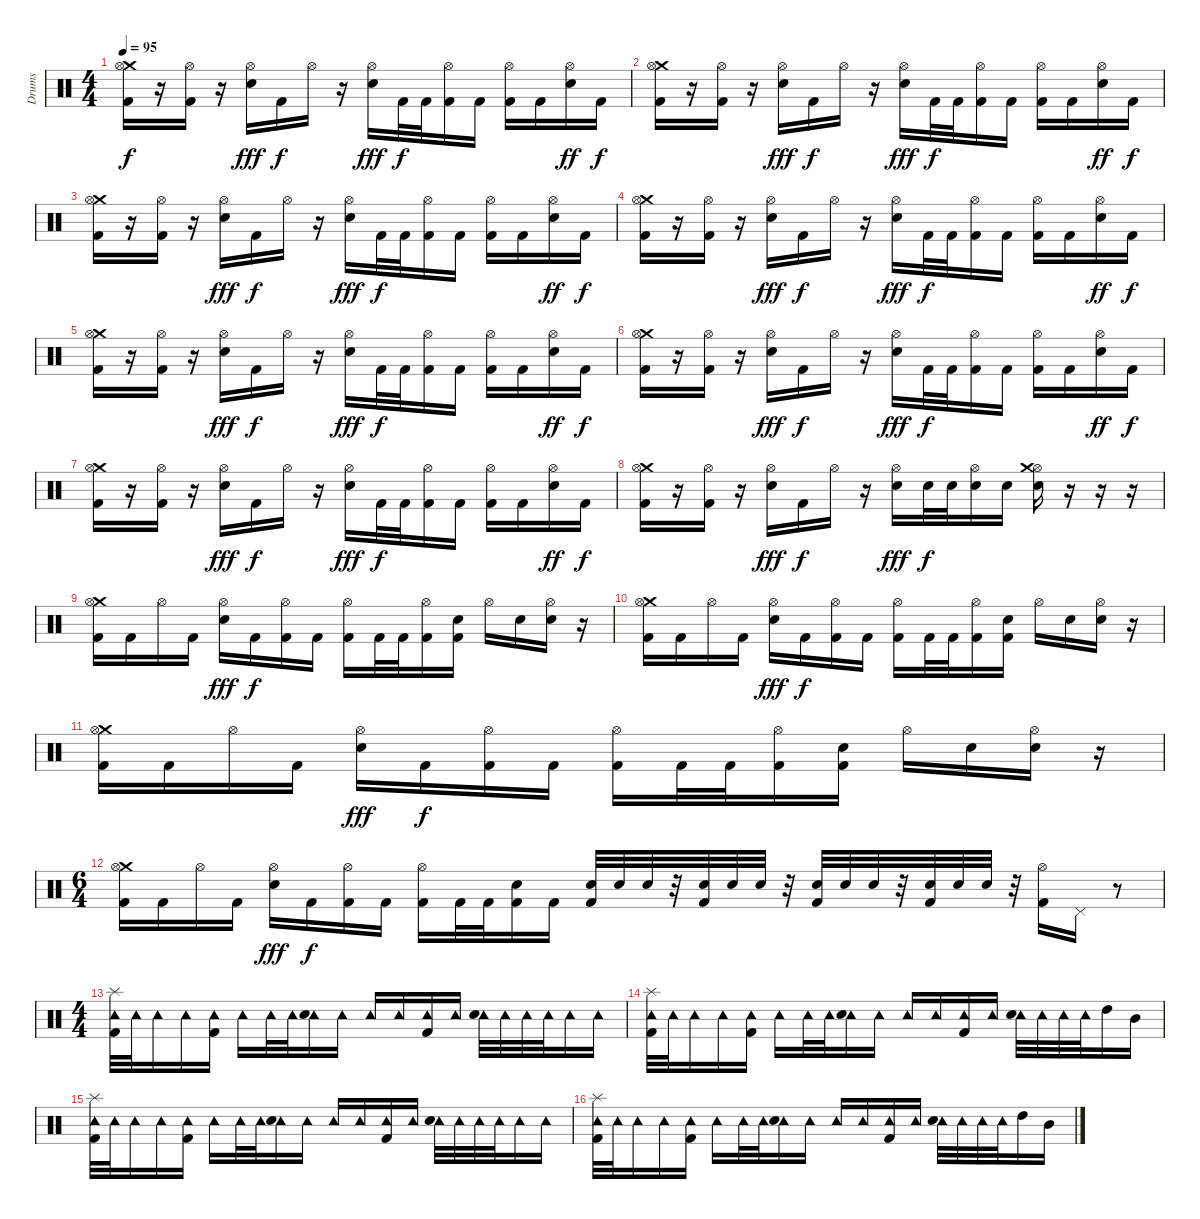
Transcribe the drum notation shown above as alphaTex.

\track ("Drums" "Drums") {instrument percussion}
\staff {score}
\articulation defaults
\ts (4 4)
\tempo 95
\clef neutral
\ks c
("Crash medium (hit)" "Hi-Hat (open)" "Kick (hit) 2").16{dy f} r.16 ("Hi-Hat (open)" "Kick (hit) 2").16 r.16 ("Hi-Hat (open)" "Electric Snare (hit)").16{dy fff} "Kick (hit) 2".16{dy f} "Hi-Hat (open)".16 r.16 ("Hi-Hat (open)" "Electric Snare (hit)").16{dy fff} "Kick (hit) 2".32{dy f} "Kick (hit) 2".32 ("Hi-Hat (open)" "Kick (hit) 2").16 "Kick (hit) 2".16 ("Hi-Hat (open)" "Kick (hit) 2").16 "Kick (hit) 2".16 ("Hi-Hat (open)" "Electric Snare (hit)").16{dy ff} "Kick (hit) 2".16{dy f} |
("Crash medium (hit)" "Hi-Hat (open)" "Kick (hit) 2").16 r.16 ("Hi-Hat (open)" "Kick (hit) 2").16 r.16 ("Hi-Hat (open)" "Electric Snare (hit)").16{dy fff} "Kick (hit) 2".16{dy f} "Hi-Hat (open)".16 r.16 ("Hi-Hat (open)" "Electric Snare (hit)").16{dy fff} "Kick (hit) 2".32{dy f} "Kick (hit) 2".32 ("Hi-Hat (open)" "Kick (hit) 2").16 "Kick (hit) 2".16 ("Hi-Hat (open)" "Kick (hit) 2").16 "Kick (hit) 2".16 ("Hi-Hat (open)" "Electric Snare (hit)").16{dy ff} "Kick (hit) 2".16{dy f} |
("Crash medium (hit)" "Hi-Hat (open)" "Kick (hit) 2").16 r.16 ("Hi-Hat (open)" "Kick (hit) 2").16 r.16 ("Hi-Hat (open)" "Electric Snare (hit)").16{dy fff} "Kick (hit) 2".16{dy f} "Hi-Hat (open)".16 r.16 ("Hi-Hat (open)" "Electric Snare (hit)").16{dy fff} "Kick (hit) 2".32{dy f} "Kick (hit) 2".32 ("Hi-Hat (open)" "Kick (hit) 2").16 "Kick (hit) 2".16 ("Hi-Hat (open)" "Kick (hit) 2").16 "Kick (hit) 2".16 ("Hi-Hat (open)" "Electric Snare (hit)").16{dy ff} "Kick (hit) 2".16{dy f} |
("Crash medium (hit)" "Hi-Hat (open)" "Kick (hit) 2").16 r.16 ("Hi-Hat (open)" "Kick (hit) 2").16 r.16 ("Hi-Hat (open)" "Electric Snare (hit)").16{dy fff} "Kick (hit) 2".16{dy f} "Hi-Hat (open)".16 r.16 ("Hi-Hat (open)" "Electric Snare (hit)").16{dy fff} "Kick (hit) 2".32{dy f} "Kick (hit) 2".32 ("Hi-Hat (open)" "Kick (hit) 2").16 "Kick (hit) 2".16 ("Hi-Hat (open)" "Kick (hit) 2").16 "Kick (hit) 2".16 ("Hi-Hat (open)" "Electric Snare (hit)").16{dy ff} "Kick (hit) 2".16{dy f} |
("Crash medium (hit)" "Hi-Hat (open)" "Kick (hit) 2").16 r.16 ("Hi-Hat (open)" "Kick (hit) 2").16 r.16 ("Hi-Hat (open)" "Electric Snare (hit)").16{dy fff} "Kick (hit) 2".16{dy f} "Hi-Hat (open)".16 r.16 ("Hi-Hat (open)" "Electric Snare (hit)").16{dy fff} "Kick (hit) 2".32{dy f} "Kick (hit) 2".32 ("Hi-Hat (open)" "Kick (hit) 2").16 "Kick (hit) 2".16 ("Hi-Hat (open)" "Kick (hit) 2").16 "Kick (hit) 2".16 ("Hi-Hat (open)" "Electric Snare (hit)").16{dy ff} "Kick (hit) 2".16{dy f} |
("Crash medium (hit)" "Hi-Hat (open)" "Kick (hit) 2").16 r.16 ("Hi-Hat (open)" "Kick (hit) 2").16 r.16 ("Hi-Hat (open)" "Electric Snare (hit)").16{dy fff} "Kick (hit) 2".16{dy f} "Hi-Hat (open)".16 r.16 ("Hi-Hat (open)" "Electric Snare (hit)").16{dy fff} "Kick (hit) 2".32{dy f} "Kick (hit) 2".32 ("Hi-Hat (open)" "Kick (hit) 2").16 "Kick (hit) 2".16 ("Hi-Hat (open)" "Kick (hit) 2").16 "Kick (hit) 2".16 ("Hi-Hat (open)" "Electric Snare (hit)").16{dy ff} "Kick (hit) 2".16{dy f} |
("Crash medium (hit)" "Hi-Hat (open)" "Kick (hit) 2").16 r.16 ("Hi-Hat (open)" "Kick (hit) 2").16 r.16 ("Hi-Hat (open)" "Electric Snare (hit)").16{dy fff} "Kick (hit) 2".16{dy f} "Hi-Hat (open)".16 r.16 ("Hi-Hat (open)" "Electric Snare (hit)").16{dy fff} "Kick (hit) 2".32{dy f} "Kick (hit) 2".32 ("Hi-Hat (open)" "Kick (hit) 2").16 "Kick (hit) 2".16 ("Hi-Hat (open)" "Kick (hit) 2").16 "Kick (hit) 2".16 ("Hi-Hat (open)" "Electric Snare (hit)").16{dy ff} "Kick (hit) 2".16{dy f} |
("Crash medium (hit)" "Hi-Hat (open)" "Kick (hit) 2").16 r.16 ("Hi-Hat (open)" "Kick (hit) 2").16 r.16 ("Hi-Hat (open)" "Electric Snare (hit)").16{dy fff} "Kick (hit) 2".16{dy f} "Hi-Hat (open)".16 r.16 ("Hi-Hat (open)" "Electric Snare (hit)").16{dy fff} "Electric Snare (hit)".32{dy f} "Electric Snare (hit)".32 ("Hi-Hat (open)" "Electric Snare (hit)").16 "Electric Snare (hit)".16 ("Hi-Hat (open)" "Crash medium (hit)" "Electric Snare (hit)").16 r.16 r.16 r.16 |
("Crash medium (hit)" "Hi-Hat (open)" "Kick (hit) 2").16 "Kick (hit) 2".16 "Hi-Hat (open)".16 "Kick (hit) 2".16 ("Hi-Hat (open)" "Electric Snare (hit)").16{dy fff} "Kick (hit) 2".16{dy f} ("Hi-Hat (open)" "Kick (hit) 2").16 "Kick (hit) 2".16 ("Hi-Hat (open)" "Kick (hit) 2").16 "Kick (hit) 2".32 "Kick (hit) 2".32 ("Hi-Hat (open)" "Kick (hit) 2").16 ("Electric Snare (hit)" "Kick (hit) 2").16 "Hi-Hat (open)".16 "Electric Snare (hit)".16 ("Hi-Hat (open)" "Electric Snare (hit)").16 r.16 |
("Crash medium (hit)" "Hi-Hat (open)" "Kick (hit) 2").16 "Kick (hit) 2".16 "Hi-Hat (open)".16 "Kick (hit) 2".16 ("Hi-Hat (open)" "Electric Snare (hit)").16{dy fff} "Kick (hit) 2".16{dy f} ("Hi-Hat (open)" "Kick (hit) 2").16 "Kick (hit) 2".16 ("Hi-Hat (open)" "Kick (hit) 2").16 "Kick (hit) 2".32 "Kick (hit) 2".32 ("Hi-Hat (open)" "Kick (hit) 2").16 ("Electric Snare (hit)" "Kick (hit) 2").16 "Hi-Hat (open)".16 "Electric Snare (hit)".16 ("Hi-Hat (open)" "Electric Snare (hit)").16 r.16 |
("Crash medium (hit)" "Hi-Hat (open)" "Kick (hit) 2").16 "Kick (hit) 2".16 "Hi-Hat (open)".16 "Kick (hit) 2".16 ("Hi-Hat (open)" "Electric Snare (hit)").16{dy fff} "Kick (hit) 2".16{dy f} ("Hi-Hat (open)" "Kick (hit) 2").16 "Kick (hit) 2".16 ("Hi-Hat (open)" "Kick (hit) 2").16 "Kick (hit) 2".32 "Kick (hit) 2".32 ("Hi-Hat (open)" "Kick (hit) 2").16 ("Electric Snare (hit)" "Kick (hit) 2").16 "Hi-Hat (open)".16 "Electric Snare (hit)".16 ("Hi-Hat (open)" "Electric Snare (hit)").16 r.16 |
\ts (6 4)
("Crash medium (hit)" "Hi-Hat (open)" "Kick (hit) 2").16 "Kick (hit) 2".16 "Hi-Hat (open)".16 "Kick (hit) 2".16 ("Hi-Hat (open)" "Electric Snare (hit)").16{dy fff} "Kick (hit) 2".16{dy f} ("Hi-Hat (open)" "Kick (hit) 2").16 "Kick (hit) 2".16 ("Hi-Hat (open)" "Kick (hit) 2").16 "Kick (hit) 2".32 "Kick (hit) 2".32 ("Electric Snare (hit)" "Kick (hit) 2").16 "Kick (hit) 2".16 ("Electric Snare (hit)" "Kick (hit) 2").32 "Electric Snare (hit)".32 "Electric Snare (hit)".32 r.32 ("Electric Snare (hit)" "Kick (hit) 2").32 "Electric Snare (hit)".32 "Electric Snare (hit)".32 r.32 ("Electric Snare (hit)" "Kick (hit) 2").32 "Electric Snare (hit)".32 "Electric Snare (hit)".32 r.32 ("Electric Snare (hit)" "Kick (hit) 2").32 "Electric Snare (hit)".32 "Electric Snare (hit)".32 r.32 ("Hi-Hat (open)" "Kick (hit) 2").16 "Pedal Hi-Hat (hit)".16 r.8 |
\ts (4 4)
("Tambourine (hit)" "Splash (hit)" "Kick (hit) 2").32 "Tambourine (hit)".32 "Tambourine (hit)".16 "Tambourine (hit)".16 ("Tambourine (hit)" "Kick (hit) 2").16 "Tambourine (hit)".16 "Tambourine (hit)".32 "Tambourine (hit)".32 ("Tambourine (hit)" "Electric Snare (hit)").16 "Tambourine (hit)".16 "Tambourine (hit)".16 "Tambourine (hit)".16 ("Tambourine (hit)" "Kick (hit) 2").16 "Tambourine (hit)".16 ("Tambourine (hit)" "Electric Snare (hit)").32 "Tambourine (hit)".32 "Tambourine (hit)".32 "Tambourine (hit)".32 "Tambourine (hit)".16 "Tambourine (hit)".16 |
("Tambourine (hit)" "Splash (hit)" "Kick (hit) 2").32 "Tambourine (hit)".32 "Tambourine (hit)".16 "Tambourine (hit)".16 ("Tambourine (hit)" "Kick (hit) 2").16 "Tambourine (hit)".16 "Tambourine (hit)".32 "Tambourine (hit)".32 ("Tambourine (hit)" "Electric Snare (hit)").16 "Tambourine (hit)".16 "Tambourine (hit)".16 "Tambourine (hit)".16 ("Tambourine (hit)" "Kick (hit) 2").16 "Tambourine (hit)".16 ("Tambourine (hit)" "Electric Snare (hit)").32 "Tambourine (hit)".32 "Tambourine (hit)".32 "Tambourine (hit)".32 "High Tom (hit)".16 "Mid Tom (hit)".16 |
("Tambourine (hit)" "Splash (hit)" "Kick (hit) 2").32 "Tambourine (hit)".32 "Tambourine (hit)".16 "Tambourine (hit)".16 ("Tambourine (hit)" "Kick (hit) 2").16 "Tambourine (hit)".16 "Tambourine (hit)".32 "Tambourine (hit)".32 ("Tambourine (hit)" "Electric Snare (hit)").16 "Tambourine (hit)".16 "Tambourine (hit)".16 "Tambourine (hit)".16 ("Tambourine (hit)" "Kick (hit) 2").16 "Tambourine (hit)".16 ("Tambourine (hit)" "Electric Snare (hit)").32 "Tambourine (hit)".32 "Tambourine (hit)".32 "Tambourine (hit)".32 "Tambourine (hit)".16 "Tambourine (hit)".16 |
("Tambourine (hit)" "Splash (hit)" "Kick (hit) 2").32 "Tambourine (hit)".32 "Tambourine (hit)".16 "Tambourine (hit)".16 ("Tambourine (hit)" "Kick (hit) 2").16 "Tambourine (hit)".16 "Tambourine (hit)".32 "Tambourine (hit)".32 ("Tambourine (hit)" "Electric Snare (hit)").16 "Tambourine (hit)".16 "Tambourine (hit)".16 "Tambourine (hit)".16 ("Tambourine (hit)" "Kick (hit) 2").16 "Tambourine (hit)".16 ("Tambourine (hit)" "Electric Snare (hit)").32 "Tambourine (hit)".32 "Tambourine (hit)".32 "Tambourine (hit)".32 "High Tom (hit)".16 "Mid Tom (hit)".16
